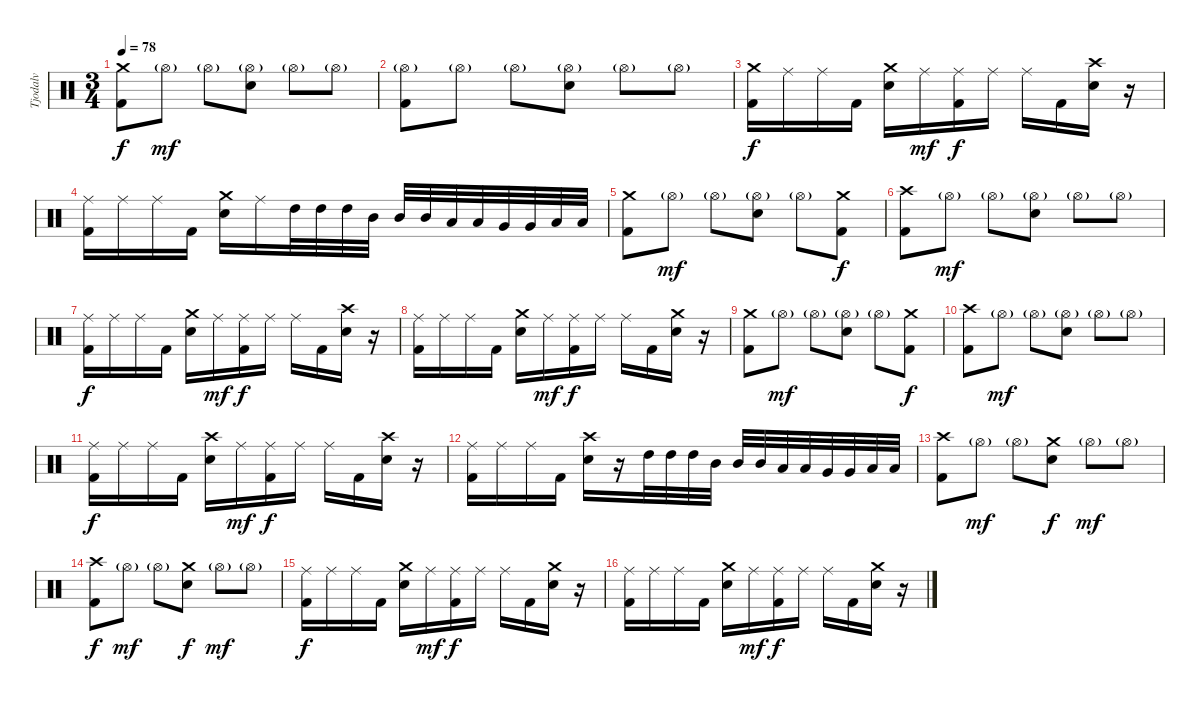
\track ("Tjodalv" "Tjodalv") {instrument percussion}
\staff {score}
\articulation defaults
\ts (3 4)
\tempo 78
\clef neutral
\ks c
("Crash medium (hit)" "Kick (hit) 2").8{dy f} "Hi-Hat (open)"{g}.8{dy mf} "Hi-Hat (open)"{g}.8 ("Hi-Hat (open)"{g} "Electric Snare (hit)").8 "Hi-Hat (open)"{g}.8 "Hi-Hat (open)"{g}.8 |
("Hi-Hat (open)"{g} "Kick (hit) 2").8 "Hi-Hat (open)"{g}.8 "Hi-Hat (open)"{g}.8 ("Hi-Hat (open)"{g} "Electric Snare (hit)").8 "Hi-Hat (open)"{g}.8 "Hi-Hat (open)"{g}.8 |
("Crash medium (hit)" "Kick (hit) 2").16{dy f} "Ride (middle)".16 "Ride (middle)".16 "Kick (hit) 2".16 ("Crash medium (hit)" "Electric Snare (hit)").16 "Ride (middle)".16{dy mf} ("Ride (middle)" "Kick (hit) 2").16{dy f} "Ride (middle)".16 "Ride (middle)".16 "Kick (hit) 2".16 ("Crash high (hit)" "Electric Snare (hit)").16 r.16 |
("Ride (middle)" "Kick (hit) 2").16 "Ride (middle)".16 "Ride (middle)".16 "Kick (hit) 2".16 ("Crash medium (hit)" "Electric Snare (hit)").16 "Ride (middle)".16 "High Tom (hit)".32 "High Tom (hit)".32 "High Tom (hit)".32 "Mid Tom (hit)".32 "Mid Tom (hit)".32 "Mid Tom (hit)".32 "Low Tom (hit)".32 "Low Tom (hit)".32 "Very Low Tom (hit)".32 "Very Low Tom (hit)".32 "Low Floor Tom (hit)".32 "Low Floor Tom (hit)".32 |
("Crash medium (hit)" "Kick (hit) 2").8 "Hi-Hat (open)"{g}.8{dy mf} "Hi-Hat (open)"{g}.8 ("Hi-Hat (open)"{g} "Electric Snare (hit)").8 "Hi-Hat (open)"{g}.8 ("Crash medium (hit)" "Kick (hit) 2").8{dy f} |
("Crash high (hit)" "Kick (hit) 2").8 "Hi-Hat (open)"{g}.8{dy mf} "Hi-Hat (open)"{g}.8 ("Hi-Hat (open)"{g} "Electric Snare (hit)").8 "Hi-Hat (open)"{g}.8 "Hi-Hat (open)"{g}.8 |
("Ride (middle)" "Kick (hit) 2").16{dy f} "Ride (middle)".16 "Ride (middle)".16 "Kick (hit) 2".16 ("Crash medium (hit)" "Electric Snare (hit)").16 "Ride (middle)".16{dy mf} ("Ride (middle)" "Kick (hit) 2").16{dy f} "Ride (middle)".16 "Ride (middle)".16 "Kick (hit) 2".16 ("Crash high (hit)" "Electric Snare (hit)").16 r.16 |
("Ride (middle)" "Kick (hit) 2").16 "Ride (middle)".16 "Ride (middle)".16 "Kick (hit) 2".16 ("Crash medium (hit)" "Electric Snare (hit)").16 "Ride (middle)".16{dy mf} ("Ride (middle)" "Kick (hit) 2").16{dy f} "Ride (middle)".16 "Ride (middle)".16 "Kick (hit) 2".16 ("Crash medium (hit)" "Electric Snare (hit)").16 r.16 |
("Crash medium (hit)" "Kick (hit) 2").8 "Hi-Hat (open)"{g}.8{dy mf} "Hi-Hat (open)"{g}.8 ("Hi-Hat (open)"{g} "Electric Snare (hit)").8 "Hi-Hat (open)"{g}.8 ("Crash medium (hit)" "Kick (hit) 2").8{dy f} |
("Crash high (hit)" "Kick (hit) 2").8 "Hi-Hat (open)"{g}.8{dy mf} "Hi-Hat (open)"{g}.8 ("Hi-Hat (open)"{g} "Electric Snare (hit)").8 "Hi-Hat (open)"{g}.8 "Hi-Hat (open)"{g}.8 |
("Ride (middle)" "Kick (hit) 2").16{dy f} "Ride (middle)".16 "Ride (middle)".16 "Kick (hit) 2".16 ("Crash high (hit)" "Electric Snare (hit)").16 "Ride (middle)".16{dy mf} ("Ride (middle)" "Kick (hit) 2").16{dy f} "Ride (middle)".16 "Ride (middle)".16 "Kick (hit) 2".16 ("Crash high (hit)" "Electric Snare (hit)").16 r.16 |
("Ride (middle)" "Kick (hit) 2").16 "Ride (middle)".16 "Ride (middle)".16 "Kick (hit) 2".16 ("Crash high (hit)" "Electric Snare (hit)").16 r.16 "High Tom (hit)".32 "High Tom (hit)".32 "High Tom (hit)".32 "Mid Tom (hit)".32 "Mid Tom (hit)".32 "Mid Tom (hit)".32 "Low Tom (hit)".32 "Low Tom (hit)".32 "Very Low Tom (hit)".32 "Very Low Tom (hit)".32 "Low Floor Tom (hit)".32 "Low Floor Tom (hit)".32 |
("Crash high (hit)" "Kick (hit) 2").8 "Hi-Hat (open)"{g}.8{dy mf} "Hi-Hat (open)"{g}.8 ("Crash medium (hit)" "Electric Snare (hit)").8{dy f} "Hi-Hat (open)"{g}.8{dy mf} "Hi-Hat (open)"{g}.8 |
("Crash high (hit)" "Kick (hit) 2").8{dy f} "Hi-Hat (open)"{g}.8{dy mf} "Hi-Hat (open)"{g}.8 ("Crash medium (hit)" "Electric Snare (hit)").8{dy f} "Hi-Hat (open)"{g}.8{dy mf} "Hi-Hat (open)"{g}.8 |
("Ride (middle)" "Kick (hit) 2").16{dy f} "Ride (middle)".16 "Ride (middle)".16 "Kick (hit) 2".16 ("Crash medium (hit)" "Electric Snare (hit)").16 "Ride (middle)".16{dy mf} ("Ride (middle)" "Kick (hit) 2").16{dy f} "Ride (middle)".16 "Ride (middle)".16 "Kick (hit) 2".16 ("Crash medium (hit)" "Electric Snare (hit)").16 r.16 |
("Ride (middle)" "Kick (hit) 2").16 "Ride (middle)".16 "Ride (middle)".16 "Kick (hit) 2".16 ("Crash medium (hit)" "Electric Snare (hit)").16 "Ride (middle)".16{dy mf} ("Ride (middle)" "Kick (hit) 2").16{dy f} "Ride (middle)".16 "Ride (middle)".16 "Kick (hit) 2".16 ("Crash medium (hit)" "Electric Snare (hit)").16 r.16
